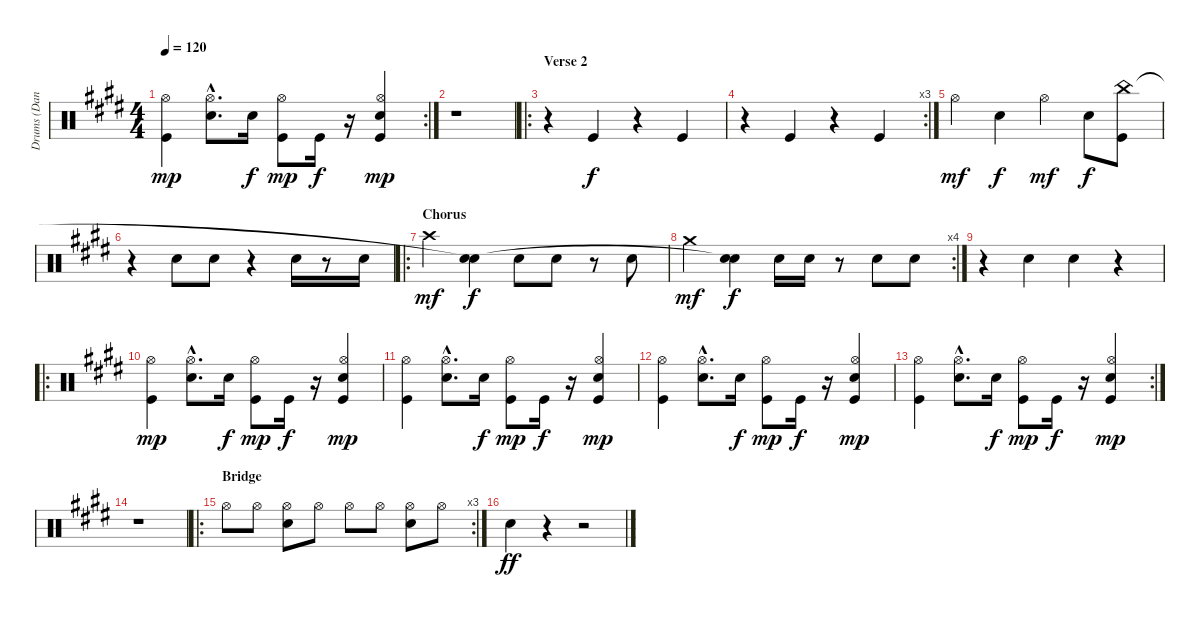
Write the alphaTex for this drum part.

\track ("Drums (Dan Rieser)" "Drums (Dan") {instrument percussion}
\staff {score}
\articulation defaults
\rc 2
\ts (4 4)
\tempo 120
\clef neutral
\ks e
("Kick (hit)" "Hi-Hat (open)").4{dy mp} ("Snare (hit) 2"{hac} "Hi-Hat (open)"{hac}).8{d} "Snare (hit) 2".16{dy f} ("Kick (hit)" "Hi-Hat (open)").8{dy mp} "Kick (hit)".16{dy f} r.16 ("Kick (hit)" "Snare (hit) 2" "Hi-Hat (open)").4{dy mp} |
r.1 |
\ro
\section ("" "Verse 2")
r.4 "Kick (hit)".4{dy f} r.4 "Kick (hit)".4 |
\rc 3
r.4 "Kick (hit)".4 r.4 "Kick (hit)".4 |
"Hi-Hat (open)".4{dy mf} "Snare (hit) 2".4{dy f} "Hi-Hat (open)".4{dy mf} "Snare (hit) 2".8{dy f} ("Kick (hit)" "China (hit)").8 |
r.4 "Snare (hit) 2".8 "Snare (hit) 2".8 r.4 "Snare (hit) 2".16 r.8 "Snare (hit) 2".16 |
\ro
\section ("" "Chorus")
"Crash high (hit)".4{dy mf} ("Snare (hit) 2" "Snare (hit)"{t}).4{dy f} "Snare (hit) 2".8 "Snare (hit) 2".8 r.8 "Snare (hit) 2".8 |
\rc 4 "Crash medium (hit)".4{dy mf}
("Snare (hit) 2" "Snare (hit)"{t}).4{dy f} "Snare (hit) 2".16 "Snare (hit) 2".16 r.8 "Snare (hit) 2".8 "Snare (hit) 2".8 |
r.4 "Snare (hit) 2".4 "Snare (hit) 2".4 r.4 |
\ro
("Kick (hit)" "Hi-Hat (open)").4{dy mp} ("Snare (hit) 2"{hac} "Hi-Hat (open)"{hac}).8{d} "Snare (hit) 2".16{dy f} ("Kick (hit)" "Hi-Hat (open)").8{dy mp} "Kick (hit)".16{dy f} r.16 ("Kick (hit)" "Snare (hit) 2" "Hi-Hat (open)").4{dy mp} |
("Kick (hit)" "Hi-Hat (open)").4 ("Snare (hit) 2"{hac} "Hi-Hat (open)"{hac}).8{d} "Snare (hit) 2".16{dy f} ("Kick (hit)" "Hi-Hat (open)").8{dy mp} "Kick (hit)".16{dy f} r.16 ("Kick (hit)" "Snare (hit) 2" "Hi-Hat (open)").4{dy mp} |
("Kick (hit)" "Hi-Hat (open)").4 ("Snare (hit) 2"{hac} "Hi-Hat (open)"{hac}).8{d} "Snare (hit) 2".16{dy f} ("Kick (hit)" "Hi-Hat (open)").8{dy mp} "Kick (hit)".16{dy f} r.16 ("Kick (hit)" "Snare (hit) 2" "Hi-Hat (open)").4{dy mp} |
\rc 2
("Kick (hit)" "Hi-Hat (open)").4 ("Snare (hit) 2"{hac} "Hi-Hat (open)"{hac}).8{d} "Snare (hit) 2".16{dy f} ("Kick (hit)" "Hi-Hat (open)").8{dy mp} "Kick (hit)".16{dy f} r.16 ("Kick (hit)" "Snare (hit) 2" "Hi-Hat (open)").4{dy mp} |
r.1 |
\ro
\rc 3
\section ("" "Bridge")
"Hi-Hat (open)".8 "Hi-Hat (open)".8 ("Snare (hit) 2" "Hi-Hat (open)").8 "Hi-Hat (open)".8 "Hi-Hat (open)".8 "Hi-Hat (open)".8 ("Snare (hit) 2" "Hi-Hat (open)").8 "Hi-Hat (open)".8 |
"Snare (hit) 2".4{dy ff} r.4 r.2
